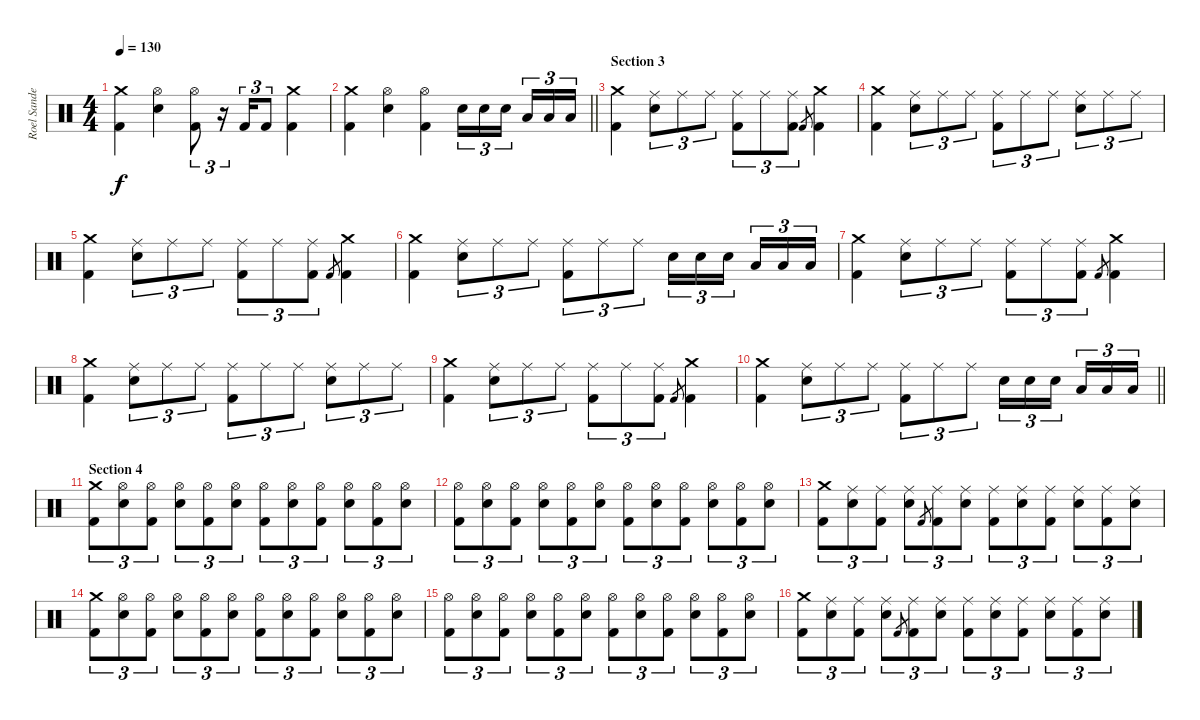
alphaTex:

\track ("Roel Sander " "Roel Sande") {instrument percussion}
\staff {score}
\articulation defaults
\ts (4 4)
\tempo 130
\clef neutral
\ks c
("Crash medium (hit)" "Kick (hit) 2").4{dy f} ("Hi-Hat (open)" "Snare (hit) 2").4 ("Hi-Hat (open)" "Kick (hit) 2").8{tu (3 2)} r.16{tu (3 2)} "Kick (hit) 2".16{tu (3 2)} "Kick (hit) 2".8{tu (3 2)} ("Crash medium (hit)" "Kick (hit) 2").4 |
\barLineRight lightlight
("Crash medium (hit)" "Kick (hit) 2").4 ("Hi-Hat (open)" "Snare (hit) 2").4 ("Hi-Hat (open)" "Kick (hit) 2").4 "Snare (hit) 2".16{tu (3 2)} "Snare (hit) 2".16{tu (3 2)} "Snare (hit) 2".16{tu (3 2) beam splitsecondary} "Low Tom (hit)".16{tu (3 2)} "Low Tom (hit)".16{tu (3 2)} "Low Tom (hit)".16{tu (3 2)} |
\section ("" "Section 3")
("Crash medium (hit)" "Kick (hit) 2").4 ("Ride (middle)" "Snare (hit) 2").8{tu (3 2)} "Ride (middle)".8{tu (3 2)} "Ride (middle)".8{tu (3 2)} ("Ride (middle)" "Kick (hit) 2").8{tu (3 2)} "Ride (middle)".8{tu (3 2)} ("Ride (middle)" "Kick (hit) 2").8{tu (3 2)} "Kick (hit) 2".8{gr} ("Crash medium (hit)" "Kick (hit) 2").4 |
("Crash medium (hit)" "Kick (hit) 2").4 ("Ride (middle)" "Snare (hit) 2").8{tu (3 2)} "Ride (middle)".8{tu (3 2)} "Ride (middle)".8{tu (3 2)} ("Ride (middle)" "Kick (hit) 2").8{tu (3 2)} "Ride (middle)".8{tu (3 2)} "Ride (middle)".8{tu (3 2)} ("Ride (middle)" "Snare (hit) 2").8{tu (3 2)} "Ride (middle)".8{tu (3 2)} "Ride (middle)".8{tu (3 2)} |
("Crash medium (hit)" "Kick (hit) 2").4 ("Ride (middle)" "Snare (hit) 2").8{tu (3 2)} "Ride (middle)".8{tu (3 2)} "Ride (middle)".8{tu (3 2)} ("Ride (middle)" "Kick (hit) 2").8{tu (3 2)} "Ride (middle)".8{tu (3 2)} ("Ride (middle)" "Kick (hit) 2").8{tu (3 2)} "Kick (hit) 2".8{gr} ("Crash medium (hit)" "Kick (hit) 2").4 |
("Crash medium (hit)" "Kick (hit) 2").4 ("Ride (middle)" "Snare (hit) 2").8{tu (3 2)} "Ride (middle)".8{tu (3 2)} "Ride (middle)".8{tu (3 2)} ("Ride (middle)" "Kick (hit) 2").8{tu (3 2)} "Ride (middle)".8{tu (3 2)} "Ride (middle)".8{tu (3 2)} "Snare (hit) 2".16{tu (3 2)} "Snare (hit) 2".16{tu (3 2)} "Snare (hit) 2".16{tu (3 2) beam splitsecondary} "Low Tom (hit)".16{tu (3 2)} "Low Tom (hit)".16{tu (3 2)} "Low Tom (hit)".16{tu (3 2)} |
("Crash medium (hit)" "Kick (hit) 2").4 ("Ride (middle)" "Snare (hit) 2").8{tu (3 2)} "Ride (middle)".8{tu (3 2)} "Ride (middle)".8{tu (3 2)} ("Ride (middle)" "Kick (hit) 2").8{tu (3 2)} "Ride (middle)".8{tu (3 2)} ("Ride (middle)" "Kick (hit) 2").8{tu (3 2)} "Kick (hit) 2".8{gr} ("Crash medium (hit)" "Kick (hit) 2").4 |
("Crash medium (hit)" "Kick (hit) 2").4 ("Ride (middle)" "Snare (hit) 2").8{tu (3 2)} "Ride (middle)".8{tu (3 2)} "Ride (middle)".8{tu (3 2)} ("Ride (middle)" "Kick (hit) 2").8{tu (3 2)} "Ride (middle)".8{tu (3 2)} "Ride (middle)".8{tu (3 2)} ("Ride (middle)" "Snare (hit) 2").8{tu (3 2)} "Ride (middle)".8{tu (3 2)} "Ride (middle)".8{tu (3 2)} |
("Crash medium (hit)" "Kick (hit) 2").4 ("Ride (middle)" "Snare (hit) 2").8{tu (3 2)} "Ride (middle)".8{tu (3 2)} "Ride (middle)".8{tu (3 2)} ("Ride (middle)" "Kick (hit) 2").8{tu (3 2)} "Ride (middle)".8{tu (3 2)} ("Ride (middle)" "Kick (hit) 2").8{tu (3 2)} "Kick (hit) 2".8{gr} ("Crash medium (hit)" "Kick (hit) 2").4 |
\barLineRight lightlight
("Crash medium (hit)" "Kick (hit) 2").4 ("Ride (middle)" "Snare (hit) 2").8{tu (3 2)} "Ride (middle)".8{tu (3 2)} "Ride (middle)".8{tu (3 2)} ("Ride (middle)" "Kick (hit) 2").8{tu (3 2)} "Ride (middle)".8{tu (3 2)} "Ride (middle)".8{tu (3 2)} "Snare (hit) 2".16{tu (3 2)} "Snare (hit) 2".16{tu (3 2)} "Snare (hit) 2".16{tu (3 2) beam splitsecondary} "Low Tom (hit)".16{tu (3 2)} "Low Tom (hit)".16{tu (3 2)} "Low Tom (hit)".16{tu (3 2)} |
\section ("" "Section 4")
("Crash medium (hit)" "Kick (hit) 2").8{tu (3 2)} ("Hi-Hat (open)" "Snare (hit) 2").8{tu (3 2)} ("Hi-Hat (open)" "Kick (hit) 2").8{tu (3 2)} ("Hi-Hat (open)" "Snare (hit) 2").8{tu (3 2)} ("Hi-Hat (open)" "Kick (hit) 2").8{tu (3 2)} ("Hi-Hat (open)" "Snare (hit) 2").8{tu (3 2)} ("Hi-Hat (open)" "Kick (hit) 2").8{tu (3 2)} ("Hi-Hat (open)" "Snare (hit) 2").8{tu (3 2)} ("Hi-Hat (open)" "Kick (hit) 2").8{tu (3 2)} ("Hi-Hat (open)" "Snare (hit) 2").8{tu (3 2)} ("Hi-Hat (open)" "Kick (hit) 2").8{tu (3 2)} ("Hi-Hat (open)" "Snare (hit) 2").8{tu (3 2)} |
("Hi-Hat (open)" "Kick (hit) 2").8{tu (3 2)} ("Hi-Hat (open)" "Snare (hit) 2").8{tu (3 2)} ("Hi-Hat (open)" "Kick (hit) 2").8{tu (3 2)} ("Hi-Hat (open)" "Snare (hit) 2").8{tu (3 2)} ("Hi-Hat (open)" "Kick (hit) 2").8{tu (3 2)} ("Hi-Hat (open)" "Snare (hit) 2").8{tu (3 2)} ("Hi-Hat (open)" "Kick (hit) 2").8{tu (3 2)} ("Hi-Hat (open)" "Snare (hit) 2").8{tu (3 2)} ("Hi-Hat (open)" "Kick (hit) 2").8{tu (3 2)} ("Hi-Hat (open)" "Snare (hit) 2").8{tu (3 2)} ("Hi-Hat (open)" "Kick (hit) 2").8{tu (3 2)} ("Hi-Hat (open)" "Snare (hit) 2").8{tu (3 2)} |
("Crash medium (hit)" "Kick (hit) 2").8{tu (3 2)} ("Ride (middle)" "Snare (hit) 2").8{tu (3 2)} ("Ride (middle)" "Kick (hit) 2").8{tu (3 2)} ("Ride (middle)" "Snare (hit) 2").8{tu (3 2)} "Kick (hit) 2".8{gr} ("Ride (middle)" "Kick (hit) 2").8{tu (3 2)} ("Ride (middle)" "Snare (hit) 2").8{tu (3 2)} ("Ride (middle)" "Kick (hit) 2").8{tu (3 2)} ("Ride (middle)" "Snare (hit) 2").8{tu (3 2)} ("Ride (middle)" "Kick (hit) 2").8{tu (3 2)} ("Ride (middle)" "Snare (hit) 2").8{tu (3 2)} ("Ride (middle)" "Kick (hit) 2").8{tu (3 2)} ("Ride (middle)" "Snare (hit) 2").8{tu (3 2)} |
("Crash medium (hit)" "Kick (hit) 2").8{tu (3 2)} ("Hi-Hat (open)" "Snare (hit) 2").8{tu (3 2)} ("Hi-Hat (open)" "Kick (hit) 2").8{tu (3 2)} ("Hi-Hat (open)" "Snare (hit) 2").8{tu (3 2)} ("Hi-Hat (open)" "Kick (hit) 2").8{tu (3 2)} ("Hi-Hat (open)" "Snare (hit) 2").8{tu (3 2)} ("Hi-Hat (open)" "Kick (hit) 2").8{tu (3 2)} ("Hi-Hat (open)" "Snare (hit) 2").8{tu (3 2)} ("Hi-Hat (open)" "Kick (hit) 2").8{tu (3 2)} ("Hi-Hat (open)" "Snare (hit) 2").8{tu (3 2)} ("Hi-Hat (open)" "Kick (hit) 2").8{tu (3 2)} ("Hi-Hat (open)" "Snare (hit) 2").8{tu (3 2)} |
("Hi-Hat (open)" "Kick (hit) 2").8{tu (3 2)} ("Hi-Hat (open)" "Snare (hit) 2").8{tu (3 2)} ("Hi-Hat (open)" "Kick (hit) 2").8{tu (3 2)} ("Hi-Hat (open)" "Snare (hit) 2").8{tu (3 2)} ("Hi-Hat (open)" "Kick (hit) 2").8{tu (3 2)} ("Hi-Hat (open)" "Snare (hit) 2").8{tu (3 2)} ("Hi-Hat (open)" "Kick (hit) 2").8{tu (3 2)} ("Hi-Hat (open)" "Snare (hit) 2").8{tu (3 2)} ("Hi-Hat (open)" "Kick (hit) 2").8{tu (3 2)} ("Hi-Hat (open)" "Snare (hit) 2").8{tu (3 2)} ("Hi-Hat (open)" "Kick (hit) 2").8{tu (3 2)} ("Hi-Hat (open)" "Snare (hit) 2").8{tu (3 2)} |
("Crash medium (hit)" "Kick (hit) 2").8{tu (3 2)} ("Ride (middle)" "Snare (hit) 2").8{tu (3 2)} ("Ride (middle)" "Kick (hit) 2").8{tu (3 2)} ("Ride (middle)" "Snare (hit) 2").8{tu (3 2)} "Kick (hit) 2".8{gr} ("Ride (middle)" "Kick (hit) 2").8{tu (3 2)} ("Ride (middle)" "Snare (hit) 2").8{tu (3 2)} ("Ride (middle)" "Kick (hit) 2").8{tu (3 2)} ("Ride (middle)" "Snare (hit) 2").8{tu (3 2)} ("Ride (middle)" "Kick (hit) 2").8{tu (3 2)} ("Ride (middle)" "Snare (hit) 2").8{tu (3 2)} ("Ride (middle)" "Kick (hit) 2").8{tu (3 2)} ("Ride (middle)" "Snare (hit) 2").8{tu (3 2)}
